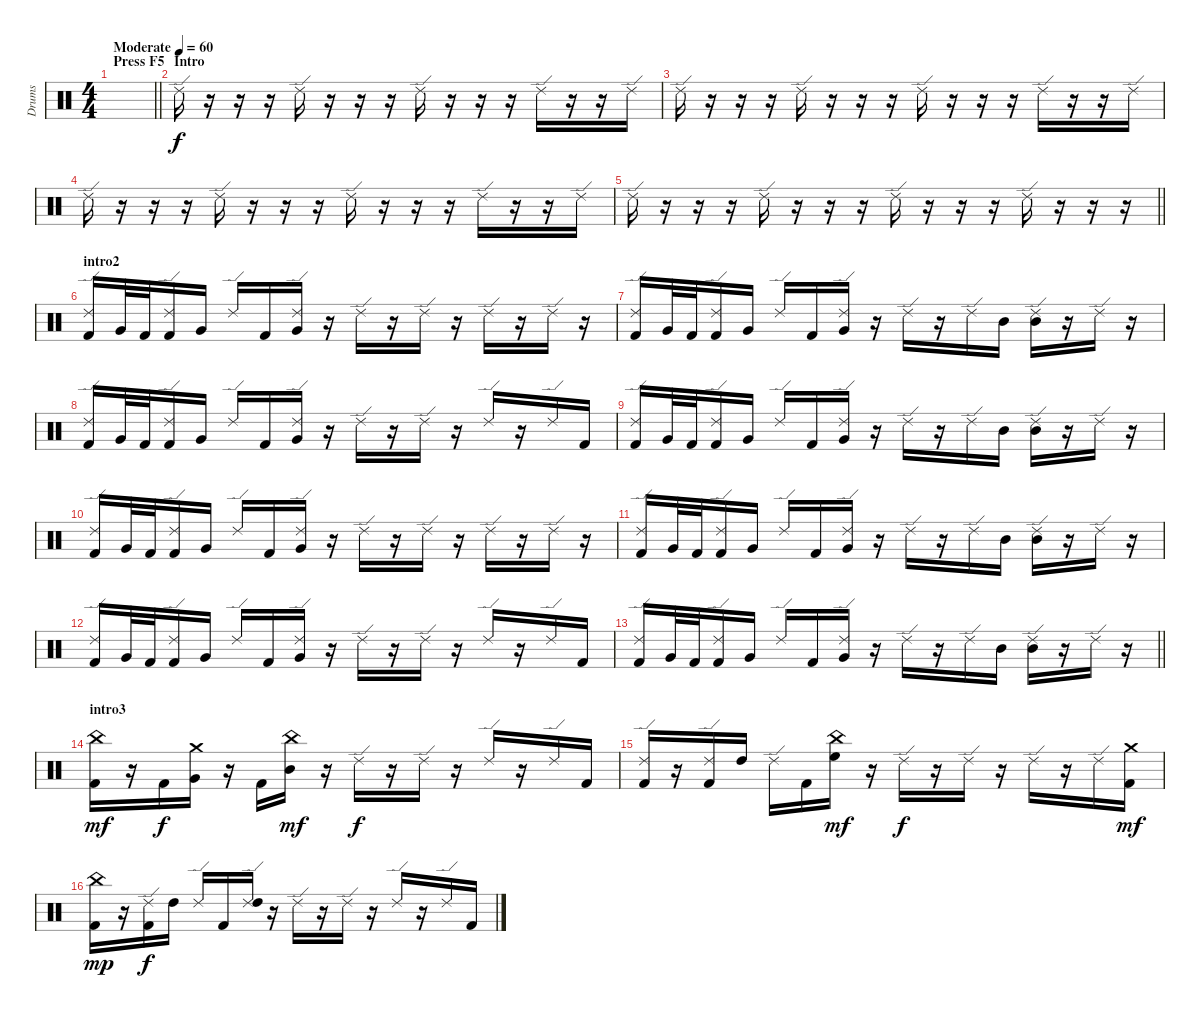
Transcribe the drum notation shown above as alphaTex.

\track ("Drums" "Drums") {instrument percussion}
\staff {score}
\articulation defaults
\ts (4 4)
\section ("" "Press F5")
\tempo (60 "Moderate")
\clef neutral
\barLineRight lightlight
\ks c
|
\section ("" "Intro")
"Ride (edge) 2".16 r.16 r.16 r.16 "Ride (edge) 2".16 r.16 r.16 r.16 "Ride (edge) 2".16 r.16 r.16 r.16 "Ride (edge) 2".16 r.16 r.16 "Ride (edge) 2".16 |
"Ride (edge) 2".16 r.16 r.16 r.16 "Ride (edge) 2".16 r.16 r.16 r.16 "Ride (edge) 2".16 r.16 r.16 r.16 "Ride (edge) 2".16 r.16 r.16 "Ride (edge) 2".16 |
"Ride (edge) 2".16 r.16 r.16 r.16 "Ride (edge) 2".16 r.16 r.16 r.16 "Ride (edge) 2".16 r.16 r.16 r.16 "Ride (edge) 2".16 r.16 r.16 "Ride (edge) 2".16 |
\barLineRight lightlight "Ride (edge) 2".16
r.16 r.16 r.16 "Ride (edge) 2".16 r.16 r.16 r.16 "Ride (edge) 2".16 r.16 r.16 r.16 "Ride (edge) 2".16 r.16 r.16 r.16 |
\section ("" "intro2")
("Ride (edge) 2" "Kick (hit) 2").16 "Very Low Tom (hit)".32 "Kick (hit) 2".32 ("Ride (edge) 2" "Kick (hit) 2").16 "Very Low Tom (hit)".16 "Ride (edge) 2".16 "Kick (hit) 2".16 ("Ride (edge) 2" "Very Low Tom (hit)").16 r.16 "Ride (edge) 2".16 r.16 "Ride (edge) 2".16 r.16 "Ride (edge) 2".16 r.16 "Ride (edge) 2".16 r.16 |
("Ride (edge) 2" "Kick (hit) 2").16 "Very Low Tom (hit)".32 "Kick (hit) 2".32 ("Ride (edge) 2" "Kick (hit) 2").16 "Very Low Tom (hit)".16 "Ride (edge) 2".16 "Kick (hit) 2".16 ("Ride (edge) 2" "Very Low Tom (hit)").16 r.16 "Ride (edge) 2".16 r.16 "Ride (edge) 2".16 "Mid Tom (hit)".16 ("Ride (edge) 2" "Mid Tom (hit)").16 r.16 "Ride (edge) 2".16 r.16 |
("Ride (edge) 2" "Kick (hit) 2").16 "Very Low Tom (hit)".32 "Kick (hit) 2".32 ("Ride (edge) 2" "Kick (hit) 2").16 "Very Low Tom (hit)".16 "Ride (edge) 2".16 "Kick (hit) 2".16 ("Ride (edge) 2" "Very Low Tom (hit)").16 r.16 "Ride (edge) 2".16 r.16 "Ride (edge) 2".16 r.16 "Ride (edge) 2".16 r.16 "Ride (edge) 2".16 "Kick (hit) 2".16 |
("Ride (edge) 2" "Kick (hit) 2").16 "Very Low Tom (hit)".32 "Kick (hit) 2".32 ("Ride (edge) 2" "Kick (hit) 2").16 "Very Low Tom (hit)".16 "Ride (edge) 2".16 "Kick (hit) 2".16 ("Ride (edge) 2" "Very Low Tom (hit)").16 r.16 "Ride (edge) 2".16 r.16 "Ride (edge) 2".16 "Mid Tom (hit)".16 ("Ride (edge) 2" "Mid Tom (hit)").16 r.16 "Ride (edge) 2".16 r.16 |
("Ride (edge) 2" "Kick (hit) 2").16 "Very Low Tom (hit)".32 "Kick (hit) 2".32 ("Ride (edge) 2" "Kick (hit) 2").16 "Very Low Tom (hit)".16 "Ride (edge) 2".16 "Kick (hit) 2".16 ("Ride (edge) 2" "Very Low Tom (hit)").16 r.16 "Ride (edge) 2".16 r.16 "Ride (edge) 2".16 r.16 "Ride (edge) 2".16 r.16 "Ride (edge) 2".16 r.16 |
("Ride (edge) 2" "Kick (hit) 2").16 "Very Low Tom (hit)".32 "Kick (hit) 2".32 ("Ride (edge) 2" "Kick (hit) 2").16 "Very Low Tom (hit)".16 "Ride (edge) 2".16 "Kick (hit) 2".16 ("Ride (edge) 2" "Very Low Tom (hit)").16 r.16 "Ride (edge) 2".16 r.16 "Ride (edge) 2".16 "Mid Tom (hit)".16 ("Ride (edge) 2" "Mid Tom (hit)").16 r.16 "Ride (edge) 2".16 r.16 |
("Ride (edge) 2" "Kick (hit) 2").16 "Very Low Tom (hit)".32 "Kick (hit) 2".32 ("Ride (edge) 2" "Kick (hit) 2").16 "Very Low Tom (hit)".16 "Ride (edge) 2".16 "Kick (hit) 2".16 ("Ride (edge) 2" "Very Low Tom (hit)").16 r.16 "Ride (edge) 2".16 r.16 "Ride (edge) 2".16 r.16 "Ride (edge) 2".16 r.16 "Ride (edge) 2".16 "Kick (hit) 2".16 |
\barLineRight lightlight
("Ride (edge) 2" "Kick (hit) 2").16 "Very Low Tom (hit)".32 "Kick (hit) 2".32 ("Ride (edge) 2" "Kick (hit) 2").16 "Very Low Tom (hit)".16 "Ride (edge) 2".16 "Kick (hit) 2".16 ("Ride (edge) 2" "Very Low Tom (hit)").16 r.16 "Ride (edge) 2".16 r.16 "Ride (edge) 2".16 "Mid Tom (hit)".16 ("Ride (edge) 2" "Mid Tom (hit)").16 r.16 "Ride (edge) 2".16 r.16 |
\section ("" "intro3")
("China (hit)" "Kick (hit) 2").16{dy mf} r.16 "Kick (hit) 2".16{dy f} ("Crash medium (hit)" "Very Low Tom (hit)").16 r.16 "Kick (hit) 2".16 ("China (hit)" "Mid Tom (hit)").16{dy mf} r.16 "Ride (edge) 2".16{dy f} r.16 "Ride (edge) 2".16 r.16 "Ride (edge) 2".16 r.16 "Ride (edge) 2".16 "Kick (hit) 2".16 |
("Ride (edge) 2" "Kick (hit) 2").16 r.16 ("Ride (edge) 2" "Kick (hit) 2").16 "High Tom (hit)".16 "Ride (edge) 2".16 "Kick (hit) 2".16 ("China (hit)" "High Floor Tom (hit)").16{dy mf} r.16 "Ride (edge) 2".16{dy f} r.16 "Ride (edge) 2".16 r.16 "Ride (edge) 2".16 r.16 "Ride (edge) 2".16 ("Crash medium (hit)" "Kick (hit) 2").16{dy mf} |
("China (hit)" "Kick (hit) 2").16{dy mp} r.16 ("Ride (edge) 2" "Kick (hit) 2").16{dy f} "High Tom (hit)".16 "Ride (edge) 2".16 "Kick (hit) 2".16 ("Ride (edge) 2" "High Tom (hit)").16 r.16 "Ride (edge) 2".16 r.16 "Ride (edge) 2".16 r.16 "Ride (edge) 2".16 r.16 "Ride (edge) 2".16 "Kick (hit) 2".16
